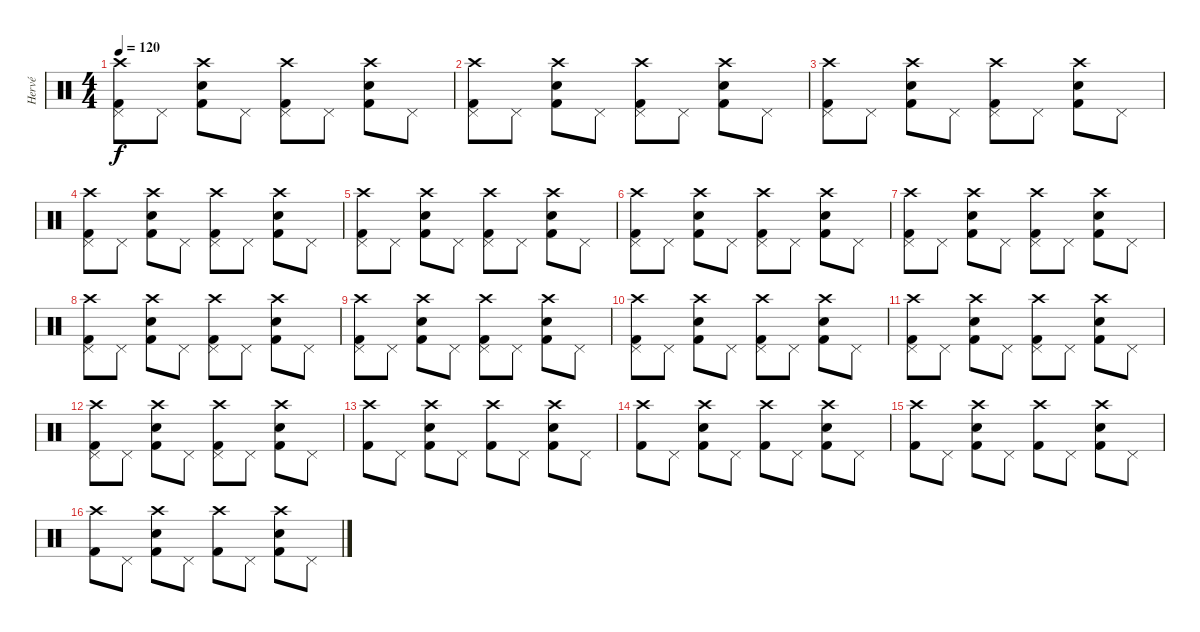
\track ("Hervé" "Hervé") {instrument percussion}
\staff {score}
\articulation defaults
\ts (4 4)
\tempo 120
\clef neutral
\ks c
("Crash high (hit)" "Pedal Hi-Hat (hit)" "Kick (hit) 2").8{dy f} "Pedal Hi-Hat (hit)".8 ("Crash high (hit)" "Electric Snare (hit)" "Kick (hit) 2").8 "Pedal Hi-Hat (hit)".8 ("Crash high (hit)" "Pedal Hi-Hat (hit)" "Kick (hit) 2").8 "Pedal Hi-Hat (hit)".8 ("Crash high (hit)" "Electric Snare (hit)" "Kick (hit) 2").8 "Pedal Hi-Hat (hit)".8 |
("Crash high (hit)" "Pedal Hi-Hat (hit)" "Kick (hit) 2").8 "Pedal Hi-Hat (hit)".8 ("Crash high (hit)" "Electric Snare (hit)" "Kick (hit) 2").8 "Pedal Hi-Hat (hit)".8 ("Crash high (hit)" "Pedal Hi-Hat (hit)" "Kick (hit) 2").8 "Pedal Hi-Hat (hit)".8 ("Crash high (hit)" "Electric Snare (hit)" "Kick (hit) 2").8 "Pedal Hi-Hat (hit)".8 |
("Crash high (hit)" "Pedal Hi-Hat (hit)" "Kick (hit) 2").8 "Pedal Hi-Hat (hit)".8 ("Crash high (hit)" "Electric Snare (hit)" "Kick (hit) 2").8 "Pedal Hi-Hat (hit)".8 ("Crash high (hit)" "Pedal Hi-Hat (hit)" "Kick (hit) 2").8 "Pedal Hi-Hat (hit)".8 ("Crash high (hit)" "Electric Snare (hit)" "Kick (hit) 2").8 "Pedal Hi-Hat (hit)".8 |
("Crash high (hit)" "Pedal Hi-Hat (hit)" "Kick (hit) 2").8 "Pedal Hi-Hat (hit)".8 ("Crash high (hit)" "Electric Snare (hit)" "Kick (hit) 2").8 "Pedal Hi-Hat (hit)".8 ("Crash high (hit)" "Pedal Hi-Hat (hit)" "Kick (hit) 2").8 "Pedal Hi-Hat (hit)".8 ("Crash high (hit)" "Electric Snare (hit)" "Kick (hit) 2").8 "Pedal Hi-Hat (hit)".8 |
("Crash high (hit)" "Pedal Hi-Hat (hit)" "Kick (hit) 2").8 "Pedal Hi-Hat (hit)".8 ("Crash high (hit)" "Electric Snare (hit)" "Kick (hit) 2").8 "Pedal Hi-Hat (hit)".8 ("Crash high (hit)" "Pedal Hi-Hat (hit)" "Kick (hit) 2").8 "Pedal Hi-Hat (hit)".8 ("Crash high (hit)" "Electric Snare (hit)" "Kick (hit) 2").8 "Pedal Hi-Hat (hit)".8 |
("Crash high (hit)" "Pedal Hi-Hat (hit)" "Kick (hit) 2").8 "Pedal Hi-Hat (hit)".8 ("Crash high (hit)" "Electric Snare (hit)" "Kick (hit) 2").8 "Pedal Hi-Hat (hit)".8 ("Crash high (hit)" "Pedal Hi-Hat (hit)" "Kick (hit) 2").8 "Pedal Hi-Hat (hit)".8 ("Crash high (hit)" "Electric Snare (hit)" "Kick (hit) 2").8 "Pedal Hi-Hat (hit)".8 |
("Crash high (hit)" "Pedal Hi-Hat (hit)" "Kick (hit) 2").8 "Pedal Hi-Hat (hit)".8 ("Crash high (hit)" "Electric Snare (hit)" "Kick (hit) 2").8 "Pedal Hi-Hat (hit)".8 ("Crash high (hit)" "Pedal Hi-Hat (hit)" "Kick (hit) 2").8 "Pedal Hi-Hat (hit)".8 ("Crash high (hit)" "Electric Snare (hit)" "Kick (hit) 2").8 "Pedal Hi-Hat (hit)".8 |
("Crash high (hit)" "Pedal Hi-Hat (hit)" "Kick (hit) 2").8 "Pedal Hi-Hat (hit)".8 ("Crash high (hit)" "Electric Snare (hit)" "Kick (hit) 2").8 "Pedal Hi-Hat (hit)".8 ("Crash high (hit)" "Pedal Hi-Hat (hit)" "Kick (hit) 2").8 "Pedal Hi-Hat (hit)".8 ("Crash high (hit)" "Electric Snare (hit)" "Kick (hit) 2").8 "Pedal Hi-Hat (hit)".8 |
("Crash high (hit)" "Pedal Hi-Hat (hit)" "Kick (hit) 2").8 "Pedal Hi-Hat (hit)".8 ("Crash high (hit)" "Electric Snare (hit)" "Kick (hit) 2").8 "Pedal Hi-Hat (hit)".8 ("Crash high (hit)" "Pedal Hi-Hat (hit)" "Kick (hit) 2").8 "Pedal Hi-Hat (hit)".8 ("Crash high (hit)" "Electric Snare (hit)" "Kick (hit) 2").8 "Pedal Hi-Hat (hit)".8 |
("Crash high (hit)" "Pedal Hi-Hat (hit)" "Kick (hit) 2").8 "Pedal Hi-Hat (hit)".8 ("Crash high (hit)" "Electric Snare (hit)" "Kick (hit) 2").8 "Pedal Hi-Hat (hit)".8 ("Crash high (hit)" "Pedal Hi-Hat (hit)" "Kick (hit) 2").8 "Pedal Hi-Hat (hit)".8 ("Crash high (hit)" "Electric Snare (hit)" "Kick (hit) 2").8 "Pedal Hi-Hat (hit)".8 |
("Crash high (hit)" "Pedal Hi-Hat (hit)" "Kick (hit) 2").8 "Pedal Hi-Hat (hit)".8 ("Crash high (hit)" "Electric Snare (hit)" "Kick (hit) 2").8 "Pedal Hi-Hat (hit)".8 ("Crash high (hit)" "Pedal Hi-Hat (hit)" "Kick (hit) 2").8 "Pedal Hi-Hat (hit)".8 ("Crash high (hit)" "Electric Snare (hit)" "Kick (hit) 2").8 "Pedal Hi-Hat (hit)".8 |
("Crash high (hit)" "Pedal Hi-Hat (hit)" "Kick (hit) 2").8 "Pedal Hi-Hat (hit)".8 ("Crash high (hit)" "Electric Snare (hit)" "Kick (hit) 2").8 "Pedal Hi-Hat (hit)".8 ("Crash high (hit)" "Pedal Hi-Hat (hit)" "Kick (hit) 2").8 "Pedal Hi-Hat (hit)".8 ("Crash high (hit)" "Electric Snare (hit)" "Kick (hit) 2").8 "Pedal Hi-Hat (hit)".8 |
("Crash high (hit)" "Kick (hit) 2").8 "Pedal Hi-Hat (hit)".8 ("Crash high (hit)" "Electric Snare (hit)" "Kick (hit) 2").8 "Pedal Hi-Hat (hit)".8 ("Crash high (hit)" "Kick (hit) 2").8 "Pedal Hi-Hat (hit)".8 ("Crash high (hit)" "Electric Snare (hit)" "Kick (hit) 2").8 "Pedal Hi-Hat (hit)".8 |
("Crash high (hit)" "Kick (hit) 2").8 "Pedal Hi-Hat (hit)".8 ("Crash high (hit)" "Electric Snare (hit)" "Kick (hit) 2").8 "Pedal Hi-Hat (hit)".8 ("Crash high (hit)" "Kick (hit) 2").8 "Pedal Hi-Hat (hit)".8 ("Crash high (hit)" "Electric Snare (hit)" "Kick (hit) 2").8 "Pedal Hi-Hat (hit)".8 |
("Crash high (hit)" "Kick (hit) 2").8 "Pedal Hi-Hat (hit)".8 ("Crash high (hit)" "Electric Snare (hit)" "Kick (hit) 2").8 "Pedal Hi-Hat (hit)".8 ("Crash high (hit)" "Kick (hit) 2").8 "Pedal Hi-Hat (hit)".8 ("Crash high (hit)" "Electric Snare (hit)" "Kick (hit) 2").8 "Pedal Hi-Hat (hit)".8 |
("Crash high (hit)" "Kick (hit) 2").8 "Pedal Hi-Hat (hit)".8 ("Crash high (hit)" "Electric Snare (hit)" "Kick (hit) 2").8 "Pedal Hi-Hat (hit)".8 ("Crash high (hit)" "Kick (hit) 2").8 "Pedal Hi-Hat (hit)".8 ("Crash high (hit)" "Electric Snare (hit)" "Kick (hit) 2").8 "Pedal Hi-Hat (hit)".8
